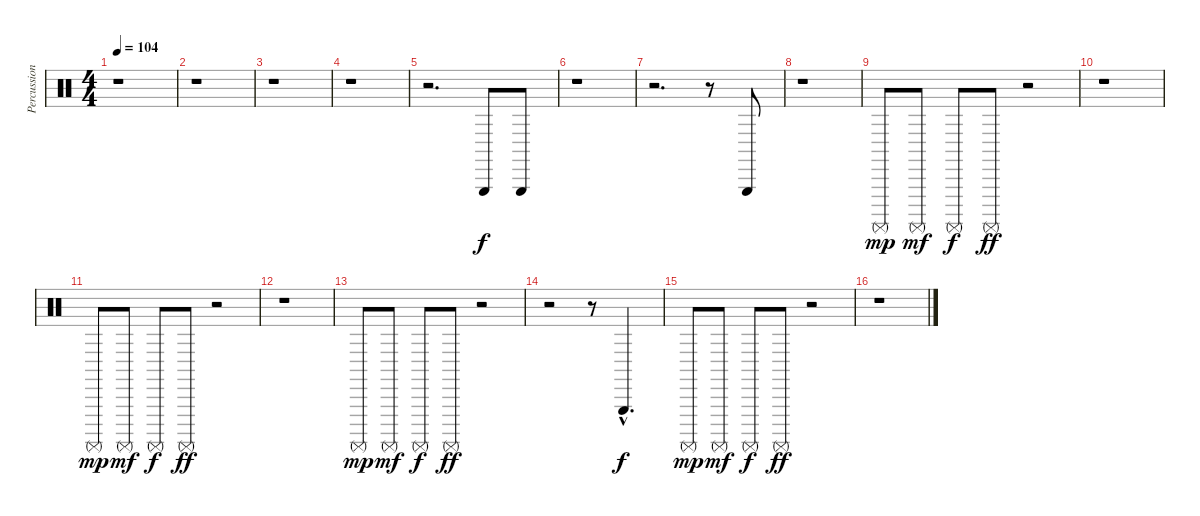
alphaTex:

\track ("Percussion" "Percussion") {instrument percussion}
\staff {score}
\articulation defaults
\ts (4 4)
\tempo 104
\clef neutral
\ks c
r.1{dy f} |
r.1 |
r.1 |
r.1 |
r.2{d} "Triangle (hit)".8 "Triangle (hit)".8 |
r.1 |
r.2{d} r.8 "Triangle (hit)".8 |
r.1 |
"Surdo (mute)".8{dy mp} "Surdo (mute)".8{dy mf} "Surdo (mute)".8{dy f} "Surdo (mute)".8{dy ff} r.2 |
r.1 |
"Surdo (mute)".8{dy mp} "Surdo (mute)".8{dy mf} "Surdo (mute)".8{dy f} "Surdo (mute)".8{dy ff} r.2 |
r.1 |
"Surdo (mute)".8{dy mp} "Surdo (mute)".8{dy mf} "Surdo (mute)".8{dy f} "Surdo (mute)".8{dy ff} r.2 |
r.2 r.8 "Triangle (hit)"{hac}.4{d dy f} |
"Surdo (mute)".8{dy mp} "Surdo (mute)".8{dy mf} "Surdo (mute)".8{dy f} "Surdo (mute)".8{dy ff} r.2 |
r.1
